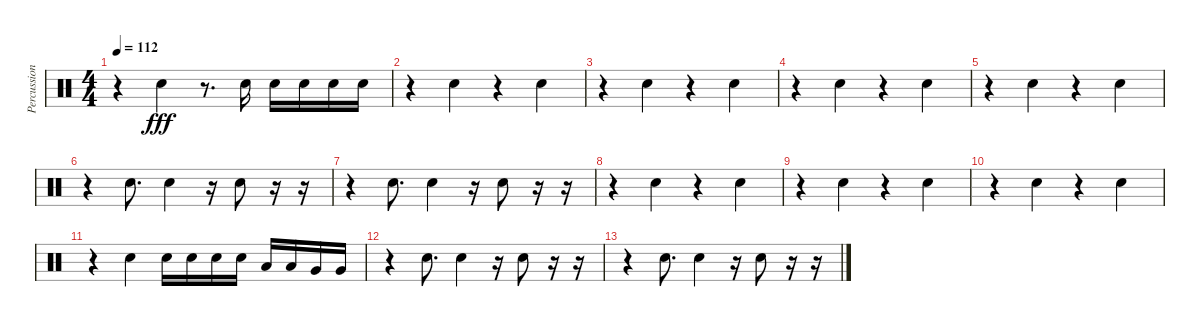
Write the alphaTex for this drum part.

\track ("Percussion" "Percussion") {instrument percussion}
\staff {score}
\articulation defaults
\ts (4 4)
\tempo 112
\clef neutral
\ks c
r.4{dy fff} "Snare (hit) 2".4 r.8{d} "Snare (hit) 2".16 "Snare (hit) 2".16 "Snare (hit) 2".16 "Snare (hit) 2".16 "Snare (hit) 2".16 |
r.4 "Snare (hit) 2".4 r.4 "Snare (hit) 2".4 |
r.4 "Snare (hit) 2".4 r.4 "Snare (hit) 2".4 |
r.4 "Snare (hit) 2".4 r.4 "Snare (hit) 2".4 |
r.4 "Snare (hit) 2".4 r.4 "Snare (hit) 2".4 |
r.4 "Snare (hit) 2".8{d} "Snare (hit) 2".4 r.16 "Snare (hit) 2".8 r.16 r.16 |
r.4 "Snare (hit) 2".8{d} "Snare (hit) 2".4 r.16 "Snare (hit) 2".8 r.16 r.16 |
r.4 "Snare (hit) 2".4 r.4 "Snare (hit) 2".4 |
r.4 "Snare (hit) 2".4 r.4 "Snare (hit) 2".4 |
r.4 "Snare (hit) 2".4 r.4 "Snare (hit) 2".4 |
r.4 "Snare (hit) 2".4 "Snare (hit) 2".16 "Snare (hit) 2".16 "Snare (hit) 2".16 "Snare (hit) 2".16 "Low Tom (hit)".16 "Low Tom (hit)".16 "Very Low Tom (hit)".16 "Very Low Tom (hit)".16 |
r.4 "Snare (hit) 2".8{d} "Snare (hit) 2".4 r.16 "Snare (hit) 2".8 r.16 r.16 |
r.4 "Snare (hit) 2".8{d} "Snare (hit) 2".4 r.16 "Snare (hit) 2".8 r.16 r.16
